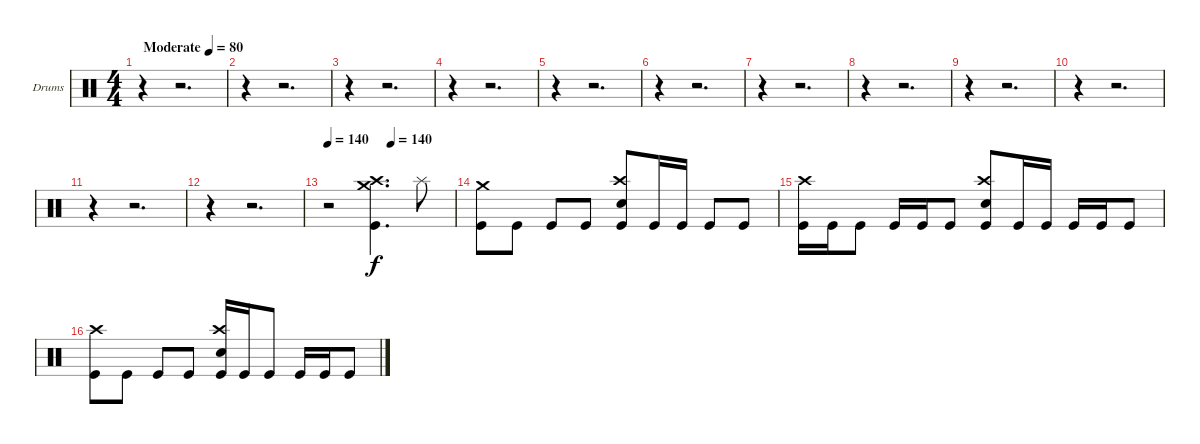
\bracketExtendMode groupsimilarinstruments
\firstSystemTrackNameOrientation horizontal
\otherSystemsTrackNameOrientation horizontal
\track ("Drumkit" "Drums") {instrument percussion}
\staff {score}
\articulation defaults
\ts (4 4)
\beaming (8 2 2 2 2)
\tempo (80 "Moderate")
\clef neutral
\ks c
r.4{dy f} r.2{d} |
r.4 r.2{d} |
r.4 r.2{d} |
r.4 r.2{d} |
r.4 r.2{d} |
r.4 r.2{d} |
r.4 r.2{d} |
r.4 r.2{d} |
r.4 r.2{d} |
r.4 r.2{d} |
r.4 r.2{d} |
r.4 r.2{d} |
\tempo 140
\tempo (140 0.5)
r.2 ("Kick (hit)" "Crash high (hit)" "Crash medium (hit)").4{d} "Splash (hit)".8 |
("Kick (hit)" "Crash medium (hit)").8 "Kick (hit)".8 "Kick (hit)".8 "Kick (hit)".8 ("Kick (hit)" "Snare (hit) 2" "Crash high (hit)").8 "Kick (hit)".16 "Kick (hit)".16 "Kick (hit)".8 "Kick (hit)".8 |
("Kick (hit)" "Crash high (hit)").16 "Kick (hit)".16 "Kick (hit)".8 "Kick (hit)".16 "Kick (hit)".16 "Kick (hit)".8 ("Kick (hit)" "Crash high (hit)" "Snare (hit) 2").8 "Kick (hit)".16 "Kick (hit)".16 "Kick (hit)".16 "Kick (hit)".16 "Kick (hit)".8 |
("Kick (hit)" "Crash high (hit)").8 "Kick (hit)".8 "Kick (hit)".8 "Kick (hit)".8 ("Kick (hit)" "Snare (hit) 2" "Crash high (hit)").16 "Kick (hit)".16 "Kick (hit)".8 "Kick (hit)".16 "Kick (hit)".16 "Kick (hit)".8
